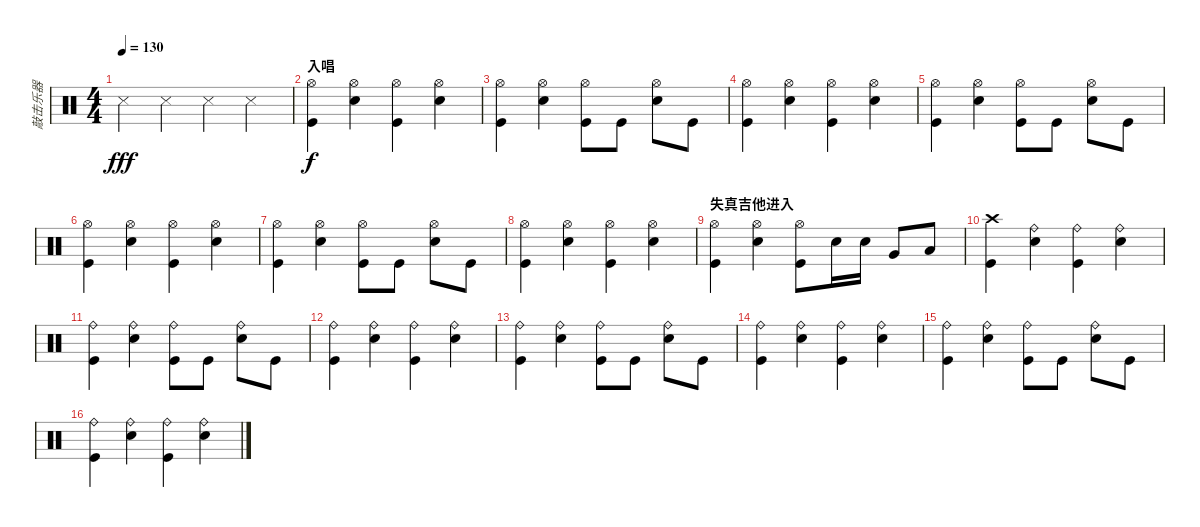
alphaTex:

\track ("敲击乐器" "敲击乐器") {instrument percussion}
\staff {score}
\articulation defaults
\ts (4 4)
\tempo 130
\clef neutral
\ks c "Snare (side stick) 3".4{dy fff} "Snare (side stick) 3".4 "Snare (side stick) 3".4 "Snare (side stick) 3".4
|
\section ("" "入唱")
("Hi-Hat (open)" "Kick (hit)").4{dy f} ("Hi-Hat (open)" "Snare (hit) 2").4 ("Hi-Hat (open)" "Kick (hit)").4 ("Hi-Hat (open)" "Snare (hit) 2").4 |
("Hi-Hat (open)" "Kick (hit)").4 ("Hi-Hat (open)" "Snare (hit) 2").4 ("Hi-Hat (open)" "Kick (hit)").8 "Kick (hit)".8 ("Hi-Hat (open)" "Snare (hit) 2").8 "Kick (hit)".8 |
("Hi-Hat (open)" "Kick (hit)").4 ("Hi-Hat (open)" "Snare (hit) 2").4 ("Hi-Hat (open)" "Kick (hit)").4 ("Hi-Hat (open)" "Snare (hit) 2").4 |
("Hi-Hat (open)" "Kick (hit)").4 ("Hi-Hat (open)" "Snare (hit) 2").4 ("Hi-Hat (open)" "Kick (hit)").8 "Kick (hit)".8 ("Hi-Hat (open)" "Snare (hit) 2").8 "Kick (hit)".8 |
("Hi-Hat (open)" "Kick (hit)").4 ("Hi-Hat (open)" "Snare (hit) 2").4 ("Hi-Hat (open)" "Kick (hit)").4 ("Hi-Hat (open)" "Snare (hit) 2").4 |
("Hi-Hat (open)" "Kick (hit)").4 ("Hi-Hat (open)" "Snare (hit) 2").4 ("Hi-Hat (open)" "Kick (hit)").8 "Kick (hit)".8 ("Hi-Hat (open)" "Snare (hit) 2").8 "Kick (hit)".8 |
("Hi-Hat (open)" "Kick (hit)").4 ("Hi-Hat (open)" "Snare (hit) 2").4 ("Hi-Hat (open)" "Kick (hit)").4 ("Hi-Hat (open)" "Snare (hit) 2").4 |
\section ("" "失真吉他进入")
("Hi-Hat (open)" "Kick (hit)").4 ("Hi-Hat (open)" "Snare (hit) 2").4 ("Hi-Hat (open)" "Kick (hit)").8 "Snare (hit) 2".16 "Snare (hit) 2".16 "Very Low Tom (hit)".8 "Low Floor Tom (hit)".8 |
("Crash high (hit)" "Kick (hit)").4 ("Ride (bell)" "Snare (hit) 2").4 ("Ride (bell)" "Kick (hit)").4 ("Ride (bell)" "Snare (hit) 2").4 |
("Ride (bell)" "Kick (hit)").4 ("Ride (bell)" "Snare (hit) 2").4 ("Ride (bell)" "Kick (hit)").8 "Kick (hit)".8 ("Ride (bell)" "Snare (hit) 2").8 "Kick (hit)".8 |
("Ride (bell)" "Kick (hit)").4 ("Ride (bell)" "Snare (hit) 2").4 ("Ride (bell)" "Kick (hit)").4 ("Ride (bell)" "Snare (hit) 2").4 |
("Ride (bell)" "Kick (hit)").4 ("Ride (bell)" "Snare (hit) 2").4 ("Ride (bell)" "Kick (hit)").8 "Kick (hit)".8 ("Ride (bell)" "Snare (hit) 2").8 "Kick (hit)".8 |
("Ride (bell)" "Kick (hit)").4 ("Ride (bell)" "Snare (hit) 2").4 ("Ride (bell)" "Kick (hit)").4 ("Ride (bell)" "Snare (hit) 2").4 |
("Ride (bell)" "Kick (hit)").4 ("Ride (bell)" "Snare (hit) 2").4 ("Ride (bell)" "Kick (hit)").8 "Kick (hit)".8 ("Ride (bell)" "Snare (hit) 2").8 "Kick (hit)".8 |
("Ride (bell)" "Kick (hit)").4 ("Ride (bell)" "Snare (hit) 2").4 ("Ride (bell)" "Kick (hit)").4 ("Ride (bell)" "Snare (hit) 2").4
